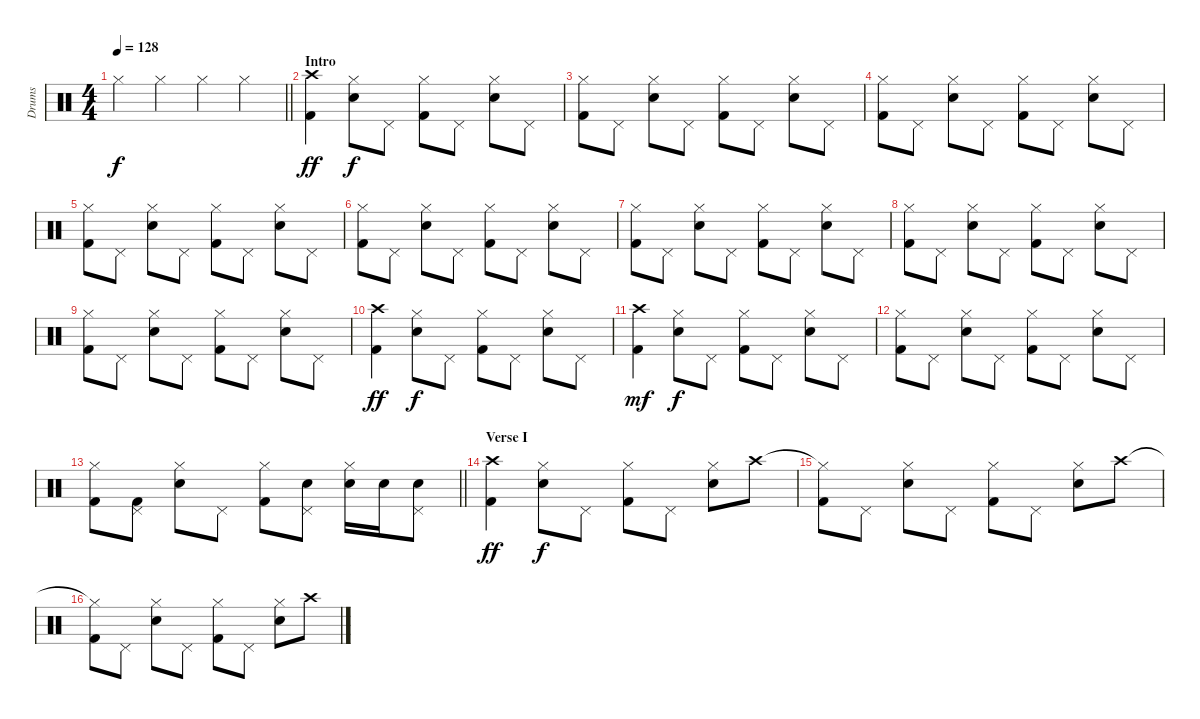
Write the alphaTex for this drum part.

\track ("Drums" "Drums") {instrument percussion}
\staff {score}
\articulation defaults
\ts (4 4)
\tempo 128
\clef neutral
\barLineRight lightlight
\ks c "Hi-Hat (closed)".4{dy f} "Hi-Hat (closed)".4 "Hi-Hat (closed)".4 "Hi-Hat (closed)".4
|
\section ("" "Intro")
("Crash high (hit)" "Kick (hit) 2").4{dy ff} ("Hi-Hat (closed)" "Electric Snare (hit)").8{dy f} "Pedal Hi-Hat (hit)".8 ("Hi-Hat (closed)" "Kick (hit) 2").8 "Pedal Hi-Hat (hit)".8 ("Hi-Hat (closed)" "Electric Snare (hit)").8 "Pedal Hi-Hat (hit)".8 |
("Hi-Hat (closed)" "Kick (hit) 2").8 "Pedal Hi-Hat (hit)".8 ("Hi-Hat (closed)" "Electric Snare (hit)").8 "Pedal Hi-Hat (hit)".8 ("Hi-Hat (closed)" "Kick (hit) 2").8 "Pedal Hi-Hat (hit)".8 ("Hi-Hat (closed)" "Electric Snare (hit)").8 "Pedal Hi-Hat (hit)".8 |
("Hi-Hat (closed)" "Kick (hit) 2").8 "Pedal Hi-Hat (hit)".8 ("Hi-Hat (closed)" "Electric Snare (hit)").8 "Pedal Hi-Hat (hit)".8 ("Hi-Hat (closed)" "Kick (hit) 2").8 "Pedal Hi-Hat (hit)".8 ("Hi-Hat (closed)" "Electric Snare (hit)").8 "Pedal Hi-Hat (hit)".8 |
("Hi-Hat (closed)" "Kick (hit) 2").8 "Pedal Hi-Hat (hit)".8 ("Hi-Hat (closed)" "Electric Snare (hit)").8 "Pedal Hi-Hat (hit)".8 ("Hi-Hat (closed)" "Kick (hit) 2").8 "Pedal Hi-Hat (hit)".8 ("Hi-Hat (closed)" "Electric Snare (hit)").8 "Pedal Hi-Hat (hit)".8 |
("Hi-Hat (closed)" "Kick (hit) 2").8 "Pedal Hi-Hat (hit)".8 ("Hi-Hat (closed)" "Electric Snare (hit)").8 "Pedal Hi-Hat (hit)".8 ("Hi-Hat (closed)" "Kick (hit) 2").8 "Pedal Hi-Hat (hit)".8 ("Hi-Hat (closed)" "Electric Snare (hit)").8 "Pedal Hi-Hat (hit)".8 |
("Hi-Hat (closed)" "Kick (hit) 2").8 "Pedal Hi-Hat (hit)".8 ("Hi-Hat (closed)" "Electric Snare (hit)").8 "Pedal Hi-Hat (hit)".8 ("Hi-Hat (closed)" "Kick (hit) 2").8 "Pedal Hi-Hat (hit)".8 ("Hi-Hat (closed)" "Electric Snare (hit)").8 "Pedal Hi-Hat (hit)".8 |
("Hi-Hat (closed)" "Kick (hit) 2").8 "Pedal Hi-Hat (hit)".8 ("Hi-Hat (closed)" "Electric Snare (hit)").8 "Pedal Hi-Hat (hit)".8 ("Hi-Hat (closed)" "Kick (hit) 2").8 "Pedal Hi-Hat (hit)".8 ("Hi-Hat (closed)" "Electric Snare (hit)").8 "Pedal Hi-Hat (hit)".8 |
("Hi-Hat (closed)" "Kick (hit) 2").8 "Pedal Hi-Hat (hit)".8 ("Hi-Hat (closed)" "Electric Snare (hit)").8 "Pedal Hi-Hat (hit)".8 ("Hi-Hat (closed)" "Kick (hit) 2").8 "Pedal Hi-Hat (hit)".8 ("Hi-Hat (closed)" "Electric Snare (hit)").8 "Pedal Hi-Hat (hit)".8 |
("Crash high (hit)" "Kick (hit) 2").4{dy ff} ("Hi-Hat (closed)" "Electric Snare (hit)").8{dy f} "Pedal Hi-Hat (hit)".8 ("Hi-Hat (closed)" "Kick (hit) 2").8 "Pedal Hi-Hat (hit)".8 ("Hi-Hat (closed)" "Electric Snare (hit)").8 "Pedal Hi-Hat (hit)".8 |
("Crash high (hit)" "Kick (hit) 2").4{dy mf} ("Hi-Hat (closed)" "Electric Snare (hit)").8{dy f} "Pedal Hi-Hat (hit)".8 ("Hi-Hat (closed)" "Kick (hit) 2").8 "Pedal Hi-Hat (hit)".8 ("Hi-Hat (closed)" "Electric Snare (hit)").8 "Pedal Hi-Hat (hit)".8 |
("Hi-Hat (closed)" "Kick (hit) 2").8 "Pedal Hi-Hat (hit)".8 ("Hi-Hat (closed)" "Electric Snare (hit)").8 "Pedal Hi-Hat (hit)".8 ("Hi-Hat (closed)" "Kick (hit) 2").8 "Pedal Hi-Hat (hit)".8 ("Hi-Hat (closed)" "Electric Snare (hit)").8 "Pedal Hi-Hat (hit)".8 |
\barLineRight lightlight
("Hi-Hat (closed)" "Kick (hit) 2").8 ("Pedal Hi-Hat (hit)" "Kick (hit) 2").8 ("Hi-Hat (closed)" "Electric Snare (hit)").8 "Pedal Hi-Hat (hit)".8 ("Hi-Hat (closed)" "Kick (hit) 2").8 ("Pedal Hi-Hat (hit)" "Snare (hit) 2").8 ("Hi-Hat (closed)" "Snare (hit) 2").16 "Snare (hit) 2".16 ("Pedal Hi-Hat (hit)" "Snare (hit) 2").8 |
\section ("" "Verse I")
("Crash high (hit)" "Kick (hit) 2").4{dy ff} ("Hi-Hat (closed)" "Electric Snare (hit)").8{dy f} "Pedal Hi-Hat (hit)".8 ("Hi-Hat (closed)" "Kick (hit) 2").8 "Pedal Hi-Hat (hit)".8 ("Hi-Hat (closed)" "Electric Snare (hit)").8 "Crash high (hit)".8 |
("Hi-Hat (closed)"{t} "Kick (hit) 2").8 "Pedal Hi-Hat (hit)".8 ("Hi-Hat (closed)" "Electric Snare (hit)").8 "Pedal Hi-Hat (hit)".8 ("Hi-Hat (closed)" "Kick (hit) 2").8 "Pedal Hi-Hat (hit)".8 ("Hi-Hat (closed)" "Electric Snare (hit)").8 "Crash high (hit)".8 |
("Hi-Hat (closed)"{t} "Kick (hit) 2").8 "Pedal Hi-Hat (hit)".8 ("Hi-Hat (closed)" "Electric Snare (hit)").8 "Pedal Hi-Hat (hit)".8 ("Hi-Hat (closed)" "Kick (hit) 2").8 "Pedal Hi-Hat (hit)".8 ("Hi-Hat (closed)" "Electric Snare (hit)").8 "Crash high (hit)".8
